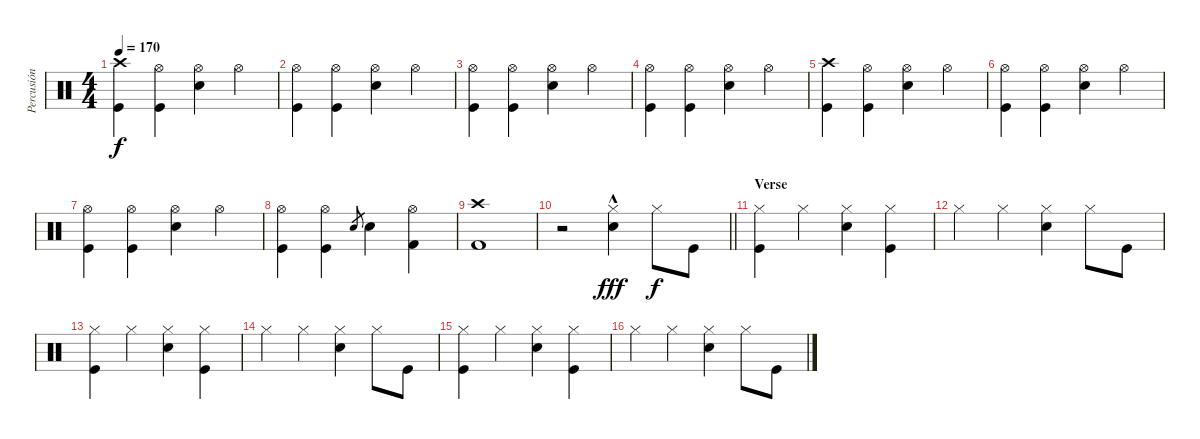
\track ("Percusión" "Percusión") {instrument percussion}
\staff {score}
\articulation defaults
\ts (4 4)
\tempo 170
\clef neutral
\ks c
("Crash high (hit)" "Kick (hit)").4{dy f} ("Hi-Hat (open)" "Kick (hit)").4 ("Hi-Hat (open)" "Electric Snare (hit)").4 "Hi-Hat (open)".4 |
("Hi-Hat (open)" "Kick (hit)").4 ("Hi-Hat (open)" "Kick (hit)").4 ("Hi-Hat (open)" "Electric Snare (hit)").4 "Hi-Hat (open)".4 |
("Hi-Hat (open)" "Kick (hit)").4 ("Hi-Hat (open)" "Kick (hit)").4 ("Hi-Hat (open)" "Electric Snare (hit)").4 "Hi-Hat (open)".4 |
("Hi-Hat (open)" "Kick (hit)").4 ("Hi-Hat (open)" "Kick (hit)").4 ("Hi-Hat (open)" "Electric Snare (hit)").4 "Hi-Hat (open)".4 |
("Crash high (hit)" "Kick (hit)").4 ("Hi-Hat (open)" "Kick (hit)").4 ("Hi-Hat (open)" "Electric Snare (hit)").4 "Hi-Hat (open)".4 |
("Hi-Hat (open)" "Kick (hit)").4 ("Hi-Hat (open)" "Kick (hit)").4 ("Hi-Hat (open)" "Electric Snare (hit)").4 "Hi-Hat (open)".4 |
("Hi-Hat (open)" "Kick (hit)").4 ("Hi-Hat (open)" "Kick (hit)").4 ("Hi-Hat (open)" "Electric Snare (hit)").4 "Hi-Hat (open)".4 |
("Hi-Hat (open)" "Kick (hit)").4 ("Hi-Hat (open)" "Kick (hit)").4 "Electric Snare (hit)".8{gr} "Electric Snare (hit)".4 ("Hi-Hat (open)" "Kick (hit) 2").4 |
("Crash high (hit)" "Kick (hit) 2").1 |
\barLineRight lightlight
r.2 ("Hi-Hat (closed)" "Electric Snare (hit)"{hac}).4{dy fff} "Hi-Hat (closed)".8{dy f} "Kick (hit)".8 |
\section ("" "Verse")
("Hi-Hat (closed)" "Kick (hit)").4 "Hi-Hat (closed)".4 ("Hi-Hat (closed)" "Electric Snare (hit)").4 ("Hi-Hat (closed)" "Kick (hit)").4 |
"Hi-Hat (closed)".4 "Hi-Hat (closed)".4 ("Hi-Hat (closed)" "Electric Snare (hit)").4 "Hi-Hat (closed)".8 "Kick (hit)".8 |
("Hi-Hat (closed)" "Kick (hit)").4 "Hi-Hat (closed)".4 ("Hi-Hat (closed)" "Electric Snare (hit)").4 ("Hi-Hat (closed)" "Kick (hit)").4 |
"Hi-Hat (closed)".4 "Hi-Hat (closed)".4 ("Hi-Hat (closed)" "Electric Snare (hit)").4 "Hi-Hat (closed)".8 "Kick (hit)".8 |
("Hi-Hat (closed)" "Kick (hit)").4 "Hi-Hat (closed)".4 ("Hi-Hat (closed)" "Electric Snare (hit)").4 ("Hi-Hat (closed)" "Kick (hit)").4 |
"Hi-Hat (closed)".4 "Hi-Hat (closed)".4 ("Hi-Hat (closed)" "Electric Snare (hit)").4 "Hi-Hat (closed)".8 "Kick (hit)".8
